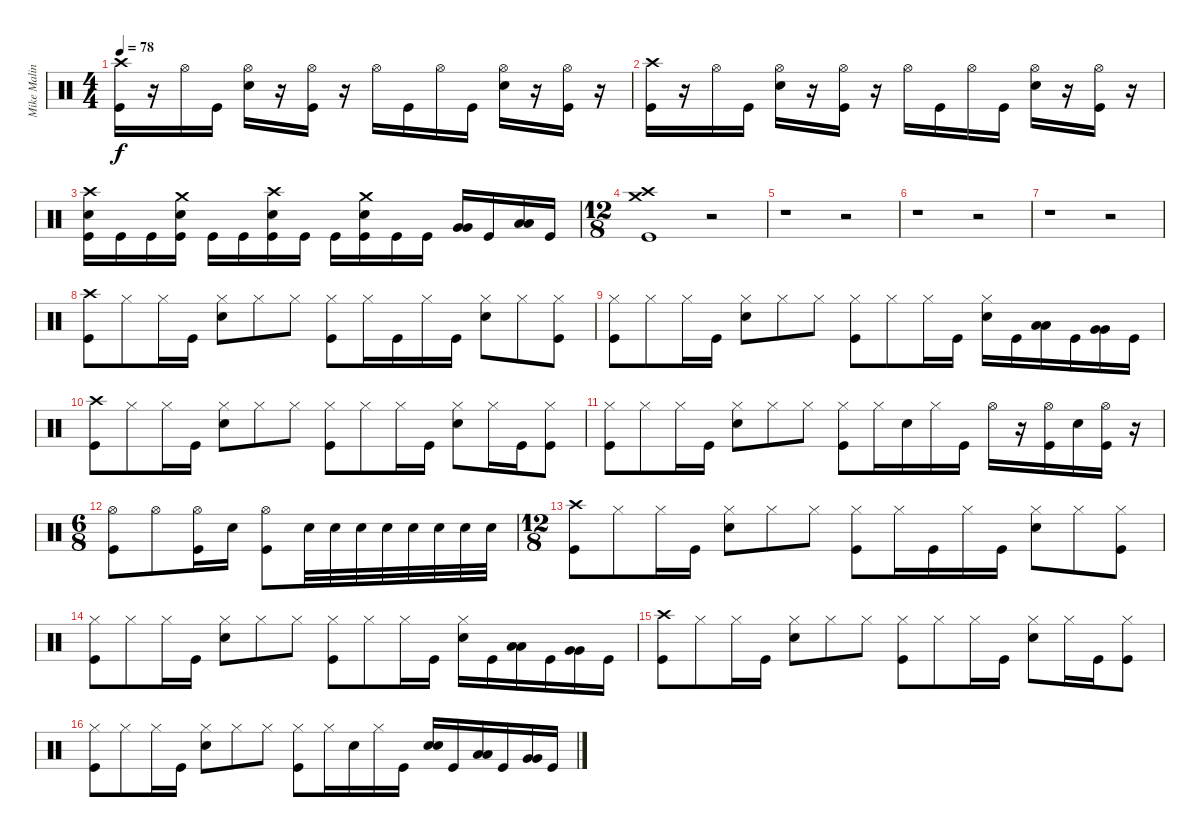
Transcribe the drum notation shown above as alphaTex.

\track ("Mike Malinin (Drums)" "Mike Malin") {instrument percussion}
\staff {score}
\articulation defaults
\ts (4 4)
\tempo 78
\clef neutral
\ks c
("Crash high (hit)" "Kick (hit)").16{dy f} r.16 "Hi-Hat (open)".16 "Kick (hit)".16 ("Hi-Hat (open)" "Snare (hit) 2").16 r.16 ("Hi-Hat (open)" "Kick (hit)").16 r.16 "Hi-Hat (open)".16 "Kick (hit)".16 "Hi-Hat (open)".16 "Kick (hit)".16 ("Hi-Hat (open)" "Snare (hit) 2").16 r.16 ("Hi-Hat (open)" "Kick (hit)").16 r.16 |
("Crash high (hit)" "Kick (hit)").16 r.16 "Hi-Hat (open)".16 "Kick (hit)".16 ("Hi-Hat (open)" "Snare (hit) 2").16 r.16 ("Hi-Hat (open)" "Kick (hit)").16 r.16 "Hi-Hat (open)".16 "Kick (hit)".16 "Hi-Hat (open)".16 "Kick (hit)".16 ("Hi-Hat (open)" "Snare (hit) 2").16 r.16 ("Hi-Hat (open)" "Kick (hit)").16 r.16 |
("Crash high (hit)" "Snare (hit) 2" "Kick (hit)").16 "Kick (hit)".16 "Kick (hit)".16 ("Crash medium (hit)" "Snare (hit) 2" "Kick (hit)").16 "Kick (hit)".16 "Kick (hit)".16 ("Crash high (hit)" "Snare (hit) 2" "Kick (hit)").16 "Kick (hit)".16 "Kick (hit)".16 ("Crash medium (hit)" "Snare (hit) 2" "Kick (hit)").16 "Kick (hit)".16 "Kick (hit)".16 ("Very Low Tom (hit)" "Very Low Tom (hit)").16 "Kick (hit)".16 ("Low Floor Tom (hit)" "Low Floor Tom (hit)").16 "Kick (hit)".16 |
\ts (12 8)
("Crash medium (hit)" "Crash high (hit)" "Kick (hit)").1 r.2 |
r.1 r.2 |
r.1 r.2 |
r.1 r.2 |
("Crash high (hit)" "Kick (hit)").8 "Hi-Hat (closed)".8 "Hi-Hat (closed)".16 "Kick (hit)".16 ("Hi-Hat (closed)" "Snare (hit) 2").8 "Hi-Hat (closed)".8 "Hi-Hat (closed)".8 ("Hi-Hat (closed)" "Kick (hit)").8 "Hi-Hat (closed)".16 "Kick (hit)".16 "Hi-Hat (closed)".16 "Kick (hit)".16 ("Hi-Hat (closed)" "Snare (hit) 2").8 "Hi-Hat (closed)".8 ("Hi-Hat (closed)" "Kick (hit)").8 |
("Hi-Hat (closed)" "Kick (hit)").8 "Hi-Hat (closed)".8 "Hi-Hat (closed)".16 "Kick (hit)".16 ("Hi-Hat (closed)" "Snare (hit) 2").8 "Hi-Hat (closed)".8 "Hi-Hat (closed)".8 ("Hi-Hat (closed)" "Kick (hit)").8 "Hi-Hat (closed)".8 "Hi-Hat (closed)".16 "Kick (hit)".16 ("Hi-Hat (closed)" "Snare (hit) 2").16 "Kick (hit)".16 ("Low Tom (hit)" "Low Tom (hit)").16 "Kick (hit)".16 ("Very Low Tom (hit)" "Very Low Tom (hit)").16 "Kick (hit)".16 |
("Crash high (hit)" "Kick (hit)").8 "Hi-Hat (closed)".8 "Hi-Hat (closed)".16 "Kick (hit)".16 ("Hi-Hat (closed)" "Snare (hit) 2").8 "Hi-Hat (closed)".8 "Hi-Hat (closed)".8 ("Hi-Hat (closed)" "Kick (hit)").8 "Hi-Hat (closed)".8 "Hi-Hat (closed)".16 "Kick (hit)".16 ("Hi-Hat (closed)" "Snare (hit) 2").8 "Hi-Hat (closed)".16 "Kick (hit)".16 ("Hi-Hat (closed)" "Kick (hit)").8 |
("Hi-Hat (closed)" "Kick (hit)").8 "Hi-Hat (closed)".8 "Hi-Hat (closed)".16 "Kick (hit)".16 ("Hi-Hat (closed)" "Snare (hit) 2").8 "Hi-Hat (closed)".8 "Hi-Hat (closed)".8 ("Hi-Hat (closed)" "Kick (hit)").8 "Hi-Hat (closed)".16 "Snare (hit) 2".16 "Hi-Hat (closed)".16 "Kick (hit)".16 "Hi-Hat (open)".16 r.16 ("Hi-Hat (open)" "Kick (hit)").16 "Snare (hit) 2".16 ("Hi-Hat (open)" "Kick (hit)").16 r.16 |
\ts (6 8)
("Hi-Hat (open)" "Kick (hit)").8 "Hi-Hat (open)".8 ("Hi-Hat (open)" "Kick (hit)").16 "Snare (hit) 2".16 ("Hi-Hat (open)" "Kick (hit)").8 "Snare (hit) 2".32 "Snare (hit) 2".32 "Snare (hit) 2".32 "Snare (hit) 2".32 "Snare (hit) 2".32 "Snare (hit) 2".32 "Snare (hit) 2".32 "Snare (hit) 2".32 |
\ts (12 8)
("Crash high (hit)" "Kick (hit)").8 "Hi-Hat (closed)".8 "Hi-Hat (closed)".16 "Kick (hit)".16 ("Hi-Hat (closed)" "Snare (hit) 2").8 "Hi-Hat (closed)".8 "Hi-Hat (closed)".8 ("Hi-Hat (closed)" "Kick (hit)").8 "Hi-Hat (closed)".16 "Kick (hit)".16 "Hi-Hat (closed)".16 "Kick (hit)".16 ("Hi-Hat (closed)" "Snare (hit) 2").8 "Hi-Hat (closed)".8 ("Hi-Hat (closed)" "Kick (hit)").8 |
("Hi-Hat (closed)" "Kick (hit)").8 "Hi-Hat (closed)".8 "Hi-Hat (closed)".16 "Kick (hit)".16 ("Hi-Hat (closed)" "Snare (hit) 2").8 "Hi-Hat (closed)".8 "Hi-Hat (closed)".8 ("Hi-Hat (closed)" "Kick (hit)").8 "Hi-Hat (closed)".8 "Hi-Hat (closed)".16 "Kick (hit)".16 ("Hi-Hat (closed)" "Snare (hit) 2").16 "Kick (hit)".16 ("Low Tom (hit)" "Low Tom (hit)").16 "Kick (hit)".16 ("Very Low Tom (hit)" "Very Low Tom (hit)").16 "Kick (hit)".16 |
("Crash high (hit)" "Kick (hit)").8 "Hi-Hat (closed)".8 "Hi-Hat (closed)".16 "Kick (hit)".16 ("Hi-Hat (closed)" "Snare (hit) 2").8 "Hi-Hat (closed)".8 "Hi-Hat (closed)".8 ("Hi-Hat (closed)" "Kick (hit)").8 "Hi-Hat (closed)".8 "Hi-Hat (closed)".16 "Kick (hit)".16 ("Hi-Hat (closed)" "Snare (hit) 2").8 "Hi-Hat (closed)".16 "Kick (hit)".16 ("Hi-Hat (closed)" "Kick (hit)").8 |
("Hi-Hat (closed)" "Kick (hit)").8 "Hi-Hat (closed)".8 "Hi-Hat (closed)".16 "Kick (hit)".16 ("Hi-Hat (closed)" "Snare (hit) 2").8 "Hi-Hat (closed)".8 "Hi-Hat (closed)".8 ("Hi-Hat (closed)" "Kick (hit)").8 "Hi-Hat (closed)".16 "Snare (hit) 2".16 "Hi-Hat (closed)".16 "Kick (hit)".16 ("Snare (hit) 2" "Snare (hit) 2").16 "Kick (hit)".16 ("Low Tom (hit)" "Low Tom (hit)").16 "Kick (hit)".16 ("Very Low Tom (hit)" "Very Low Tom (hit)").16 "Kick (hit)".16
